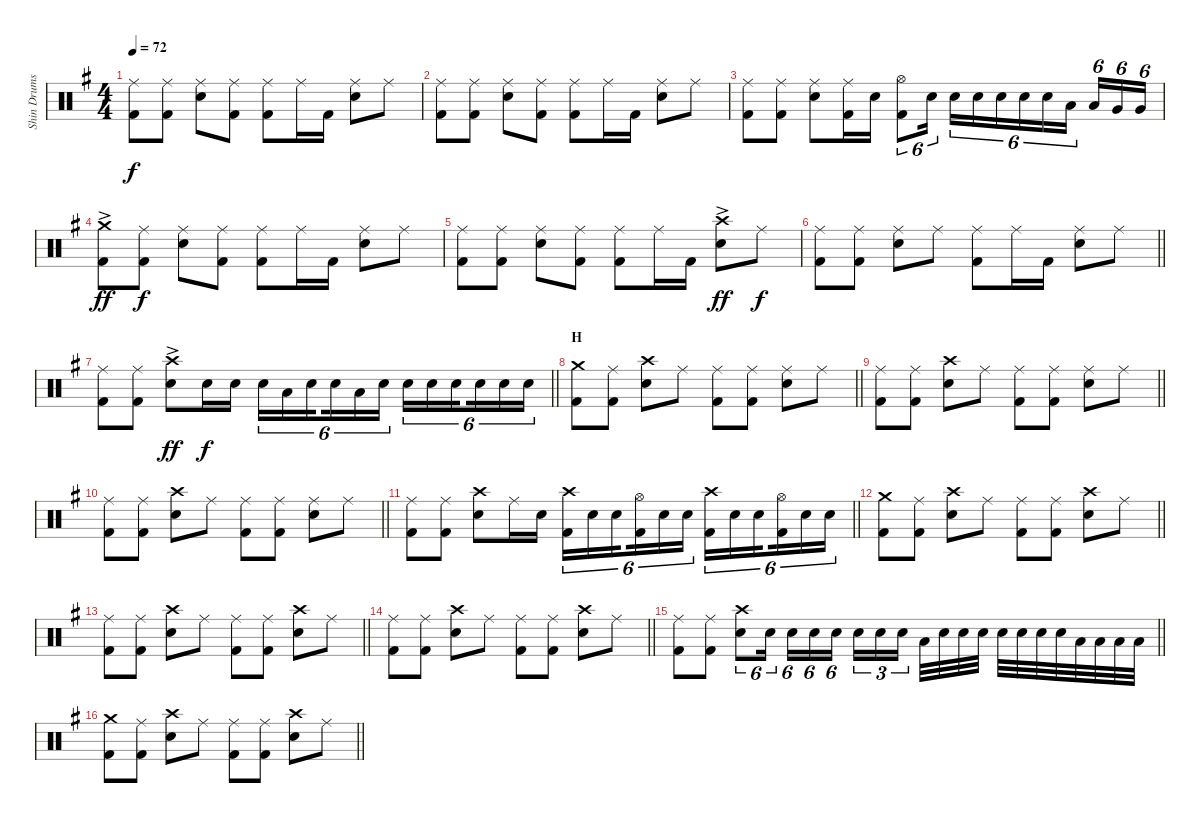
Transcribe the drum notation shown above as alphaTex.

\track ("Shin Drums" "Shin Drums") {instrument percussion}
\staff {score}
\articulation defaults
\ts (4 4)
\tempo 72
\clef neutral
\ks g
("Ride (middle)" "Kick (hit) 2").8{dy f} ("Ride (middle)" "Kick (hit) 2").8 ("Ride (middle)" "Snare (hit) 2").8 ("Ride (middle)" "Kick (hit) 2").8 ("Ride (middle)" "Kick (hit) 2").8 "Ride (middle)".16 "Kick (hit) 2".16 ("Ride (middle)" "Snare (hit) 2").8 "Ride (middle)".8 |
("Ride (middle)" "Kick (hit) 2").8 ("Ride (middle)" "Kick (hit) 2").8 ("Ride (middle)" "Snare (hit) 2").8 ("Ride (middle)" "Kick (hit) 2").8 ("Ride (middle)" "Kick (hit) 2").8 "Ride (middle)".16 "Kick (hit) 2".16 ("Ride (middle)" "Snare (hit) 2").8 "Ride (middle)".8 |
("Ride (middle)" "Kick (hit) 2").8 ("Ride (middle)" "Kick (hit) 2").8 ("Ride (middle)" "Snare (hit) 2").8 ("Ride (middle)" "Kick (hit) 2").16 "Snare (hit) 2".16 ("Hi-Hat (open)" "Kick (hit) 2").8{tu (6 4)} "Snare (hit) 2".16{tu (6 4) beam splitsecondary} "Snare (hit) 2".16{tu (6 4)} "Snare (hit) 2".16{tu (6 4)} "Snare (hit) 2".16{tu (6 4)} "Snare (hit) 2".16{tu (6 4)} "Snare (hit) 2".16{tu (6 4)} "Low Tom (hit)".16{tu (6 4) beam splitsecondary} "Low Tom (hit)".16{tu (6 4)} "Very Low Tom (hit)".16{tu (6 4)} "Very Low Tom (hit)".16{tu (6 4)} |
("Crash medium (hit)"{ac} "Kick (hit) 2").8{dy ff} ("Ride (middle)" "Kick (hit) 2").8{dy f} ("Ride (middle)" "Snare (hit) 2").8 ("Ride (middle)" "Kick (hit) 2").8 ("Ride (middle)" "Kick (hit) 2").8 "Ride (middle)".16 "Kick (hit) 2".16 ("Ride (middle)" "Snare (hit) 2").8 "Ride (middle)".8 |
("Ride (middle)" "Kick (hit) 2").8 ("Ride (middle)" "Kick (hit) 2").8 ("Ride (middle)" "Snare (hit) 2").8 ("Ride (middle)" "Kick (hit) 2").8 ("Ride (middle)" "Kick (hit) 2").8 "Ride (middle)".16 "Kick (hit) 2".16 ("Crash high (hit)"{ac} "Snare (hit) 2").8{dy ff} "Ride (middle)".8{dy f} |
\barLineRight lightlight
("Ride (middle)" "Kick (hit) 2").8 ("Ride (middle)" "Kick (hit) 2").8 ("Ride (middle)" "Snare (hit) 2").8 "Ride (middle)".8 ("Ride (middle)" "Kick (hit) 2").8 "Ride (middle)".16 "Kick (hit) 2".16 ("Ride (middle)" "Snare (hit) 2").8 "Ride (middle)".8 |
\section ("" "")
\barLineRight lightlight
("Ride (middle)" "Kick (hit) 2").8 ("Ride (middle)" "Kick (hit) 2").8 ("Crash high (hit)"{ac} "Snare (hit) 2").8{dy ff} "Snare (hit) 2".16{dy f} "Snare (hit) 2".16 "Snare (hit) 2".16{tu (6 4)} "Low Tom (hit)".16{tu (6 4)} "Snare (hit) 2".16{tu (6 4) beam splitsecondary} "Snare (hit) 2".16{tu (6 4)} "Low Tom (hit)".16{tu (6 4)} "Snare (hit) 2".16{tu (6 4)} "Snare (hit) 2".16{tu (6 4)} "Snare (hit) 2".16{tu (6 4)} "Snare (hit) 2".16{tu (6 4) beam splitsecondary} "Snare (hit) 2".16{tu (6 4)} "Snare (hit) 2".16{tu (6 4)} "Snare (hit) 2".16{tu (6 4)} |
\section ("" "H")
\barLineRight lightlight
("Crash medium (hit)" "Kick (hit) 2").8 ("Ride (middle)" "Kick (hit) 2").8 ("Crash high (hit)" "Snare (hit) 2").8 "Ride (middle)".8 ("Ride (middle)" "Kick (hit) 2").8 ("Ride (middle)" "Kick (hit) 2").8 ("Ride (middle)" "Snare (hit) 2").8 "Ride (middle)".8 |
\barLineRight lightlight
("Ride (middle)" "Kick (hit) 2").8 ("Ride (middle)" "Kick (hit) 2").8 ("Crash high (hit)" "Snare (hit) 2").8 "Ride (middle)".8 ("Ride (middle)" "Kick (hit) 2").8 ("Ride (middle)" "Kick (hit) 2").8 ("Ride (middle)" "Snare (hit) 2").8 "Ride (middle)".8 |
\barLineRight lightlight
("Ride (middle)" "Kick (hit) 2").8 ("Ride (middle)" "Kick (hit) 2").8 ("Crash high (hit)" "Snare (hit) 2").8 "Ride (middle)".8 ("Ride (middle)" "Kick (hit) 2").8 ("Ride (middle)" "Kick (hit) 2").8 ("Ride (middle)" "Snare (hit) 2").8 "Ride (middle)".8 |
\barLineRight lightlight
("Ride (middle)" "Kick (hit) 2").8 ("Ride (middle)" "Kick (hit) 2").8 ("Crash high (hit)" "Snare (hit) 2").8 "Ride (middle)".16 "Snare (hit) 2".16 ("Crash high (hit)" "Kick (hit) 2").16{tu (6 4)} "Snare (hit) 2".16{tu (6 4)} "Snare (hit) 2".16{tu (6 4) beam splitsecondary} ("Hi-Hat (open)" "Kick (hit) 2").16{tu (6 4)} "Snare (hit) 2".16{tu (6 4)} "Snare (hit) 2".16{tu (6 4)} ("Crash high (hit)" "Kick (hit) 2").16{tu (6 4)} "Snare (hit) 2".16{tu (6 4)} "Snare (hit) 2".16{tu (6 4) beam splitsecondary} ("Hi-Hat (open)" "Kick (hit) 2").16{tu (6 4)} "Snare (hit) 2".16{tu (6 4)} "Snare (hit) 2".16{tu (6 4)} |
\barLineRight lightlight
("Crash medium (hit)" "Kick (hit) 2").8 ("Ride (middle)" "Kick (hit) 2").8 ("Crash high (hit)" "Snare (hit) 2").8 "Ride (middle)".8 ("Ride (middle)" "Kick (hit) 2").8 ("Ride (middle)" "Kick (hit) 2").8 ("Crash high (hit)" "Snare (hit) 2").8 "Ride (middle)".8 |
\section ("" "")
\barLineRight lightlight
("Ride (middle)" "Kick (hit) 2").8 ("Ride (middle)" "Kick (hit) 2").8 ("Crash high (hit)" "Snare (hit) 2").8 "Ride (middle)".8 ("Ride (middle)" "Kick (hit) 2").8 ("Ride (middle)" "Kick (hit) 2").8 ("Crash high (hit)" "Snare (hit) 2").8 "Ride (middle)".8 |
\barLineRight lightlight
("Ride (middle)" "Kick (hit) 2").8 ("Ride (middle)" "Kick (hit) 2").8 ("Crash high (hit)" "Snare (hit) 2").8 "Ride (middle)".8 ("Ride (middle)" "Kick (hit) 2").8 ("Ride (middle)" "Kick (hit) 2").8 ("Crash high (hit)" "Snare (hit) 2").8 "Ride (middle)".8 |
\barLineRight lightlight
("Ride (middle)" "Kick (hit) 2").8 ("Ride (middle)" "Kick (hit) 2").8 ("Crash high (hit)" "Snare (hit) 2").8{tu (6 4)} "Snare (hit) 2".16{tu (6 4) beam splitsecondary} "Snare (hit) 2".16{tu (6 4)} "Snare (hit) 2".16{tu (6 4)} "Snare (hit) 2".16{tu (6 4)} "Snare (hit) 2".16{tu (3 2)} "Snare (hit) 2".16{tu (3 2)} "Snare (hit) 2".16{tu (3 2) beam splitsecondary} "Low Tom (hit)".32 "Snare (hit) 2".32 "Snare (hit) 2".32 "Snare (hit) 2".32 "Snare (hit) 2".32 "Snare (hit) 2".32 "Snare (hit) 2".32 "Snare (hit) 2".32 "Low Tom (hit)".32 "Low Tom (hit)".32 "Low Tom (hit)".32 "Low Tom (hit)".32 |
\barLineRight lightlight
("Crash medium (hit)" "Kick (hit) 2").8 ("Ride (middle)" "Kick (hit) 2").8 ("Crash high (hit)" "Snare (hit) 2").8 "Ride (middle)".8 ("Ride (middle)" "Kick (hit) 2").8 ("Ride (middle)" "Kick (hit) 2").8 ("Crash high (hit)" "Snare (hit) 2").8 "Ride (middle)".8
